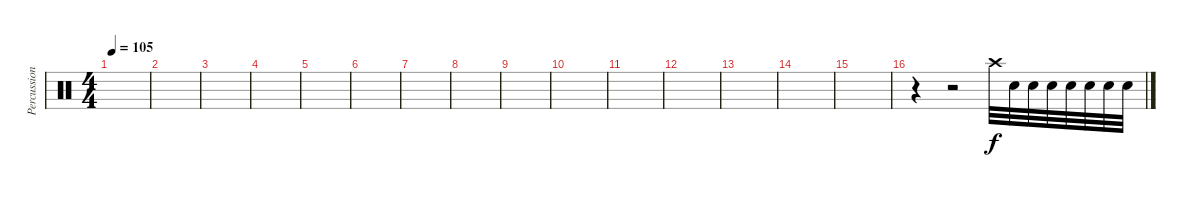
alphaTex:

\track ("Percussion" "Percussion") {instrument percussion}
\staff {score}
\articulation defaults
\ts (4 4)
\tempo 105
\clef neutral
\ks c
|
|
|
|
|
|
|
|
|
|
|
|
|
|
|
r.4 r.2 "Crash high (hit)".32 "Electric Snare (hit)".32 "Electric Snare (hit)".32 "Electric Snare (hit)".32 "Electric Snare (hit)".32 "Electric Snare (hit)".32 "Electric Snare (hit)".32 "Electric Snare (hit)".32
